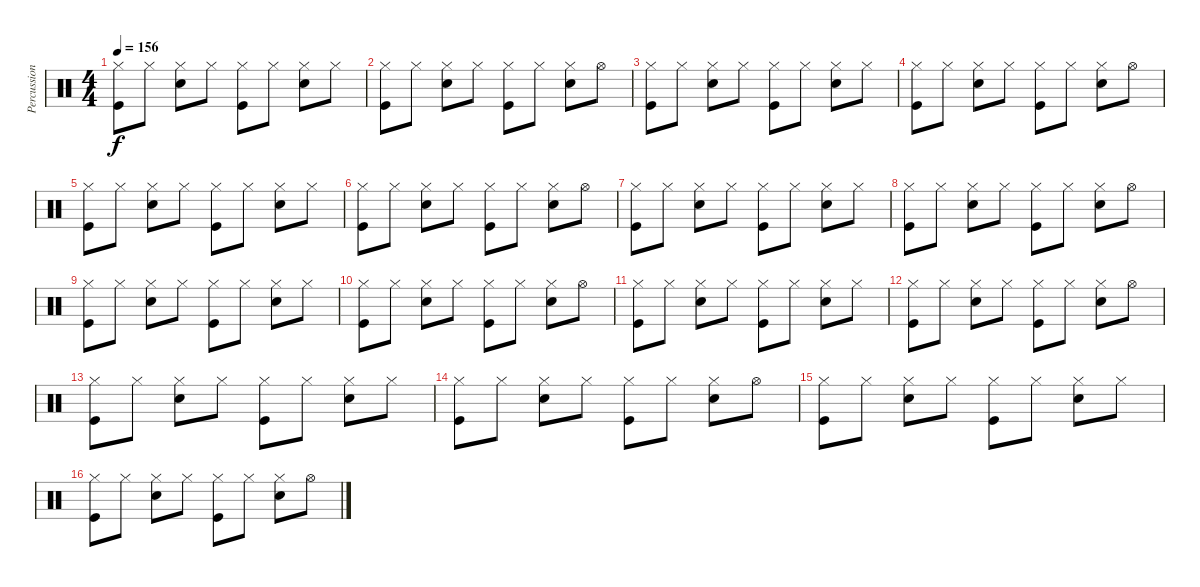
\track ("Percussion" "Percussion") {instrument percussion}
\staff {score}
\articulation defaults
\ts (4 4)
\tempo 156
\clef neutral
\ks c
("Kick (hit)" "Hi-Hat (closed)").8{dy f} "Hi-Hat (closed)".8 ("Electric Snare (hit)" "Hi-Hat (closed)").8 "Hi-Hat (closed)".8 ("Kick (hit)" "Hi-Hat (closed)").8 "Hi-Hat (closed)".8 ("Electric Snare (hit)" "Hi-Hat (closed)").8 "Hi-Hat (closed)".8 |
("Kick (hit)" "Hi-Hat (closed)").8 "Hi-Hat (closed)".8 ("Electric Snare (hit)" "Hi-Hat (closed)").8 "Hi-Hat (closed)".8 ("Kick (hit)" "Hi-Hat (closed)").8 "Hi-Hat (closed)".8 ("Electric Snare (hit)" "Hi-Hat (closed)").8 "Hi-Hat (open)".8 |
("Kick (hit)" "Hi-Hat (closed)").8 "Hi-Hat (closed)".8 ("Electric Snare (hit)" "Hi-Hat (closed)").8 "Hi-Hat (closed)".8 ("Kick (hit)" "Hi-Hat (closed)").8 "Hi-Hat (closed)".8 ("Electric Snare (hit)" "Hi-Hat (closed)").8 "Hi-Hat (closed)".8 |
("Kick (hit)" "Hi-Hat (closed)").8 "Hi-Hat (closed)".8 ("Electric Snare (hit)" "Hi-Hat (closed)").8 "Hi-Hat (closed)".8 ("Kick (hit)" "Hi-Hat (closed)").8 "Hi-Hat (closed)".8 ("Electric Snare (hit)" "Hi-Hat (closed)").8 "Hi-Hat (open)".8 |
("Kick (hit)" "Hi-Hat (closed)").8 "Hi-Hat (closed)".8 ("Electric Snare (hit)" "Hi-Hat (closed)").8 "Hi-Hat (closed)".8 ("Kick (hit)" "Hi-Hat (closed)").8 "Hi-Hat (closed)".8 ("Electric Snare (hit)" "Hi-Hat (closed)").8 "Hi-Hat (closed)".8 |
("Kick (hit)" "Hi-Hat (closed)").8 "Hi-Hat (closed)".8 ("Electric Snare (hit)" "Hi-Hat (closed)").8 "Hi-Hat (closed)".8 ("Kick (hit)" "Hi-Hat (closed)").8 "Hi-Hat (closed)".8 ("Electric Snare (hit)" "Hi-Hat (closed)").8 "Hi-Hat (open)".8 |
("Kick (hit)" "Hi-Hat (closed)").8 "Hi-Hat (closed)".8 ("Electric Snare (hit)" "Hi-Hat (closed)").8 "Hi-Hat (closed)".8 ("Kick (hit)" "Hi-Hat (closed)").8 "Hi-Hat (closed)".8 ("Electric Snare (hit)" "Hi-Hat (closed)").8 "Hi-Hat (closed)".8 |
("Kick (hit)" "Hi-Hat (closed)").8 "Hi-Hat (closed)".8 ("Electric Snare (hit)" "Hi-Hat (closed)").8 "Hi-Hat (closed)".8 ("Kick (hit)" "Hi-Hat (closed)").8 "Hi-Hat (closed)".8 ("Electric Snare (hit)" "Hi-Hat (closed)").8 "Hi-Hat (open)".8 |
("Kick (hit)" "Hi-Hat (closed)").8 "Hi-Hat (closed)".8 ("Electric Snare (hit)" "Hi-Hat (closed)").8 "Hi-Hat (closed)".8 ("Kick (hit)" "Hi-Hat (closed)").8 "Hi-Hat (closed)".8 ("Electric Snare (hit)" "Hi-Hat (closed)").8 "Hi-Hat (closed)".8 |
("Kick (hit)" "Hi-Hat (closed)").8 "Hi-Hat (closed)".8 ("Electric Snare (hit)" "Hi-Hat (closed)").8 "Hi-Hat (closed)".8 ("Kick (hit)" "Hi-Hat (closed)").8 "Hi-Hat (closed)".8 ("Electric Snare (hit)" "Hi-Hat (closed)").8 "Hi-Hat (open)".8 |
("Kick (hit)" "Hi-Hat (closed)").8 "Hi-Hat (closed)".8 ("Electric Snare (hit)" "Hi-Hat (closed)").8 "Hi-Hat (closed)".8 ("Kick (hit)" "Hi-Hat (closed)").8 "Hi-Hat (closed)".8 ("Electric Snare (hit)" "Hi-Hat (closed)").8 "Hi-Hat (closed)".8 |
("Kick (hit)" "Hi-Hat (closed)").8 "Hi-Hat (closed)".8 ("Electric Snare (hit)" "Hi-Hat (closed)").8 "Hi-Hat (closed)".8 ("Kick (hit)" "Hi-Hat (closed)").8 "Hi-Hat (closed)".8 ("Electric Snare (hit)" "Hi-Hat (closed)").8 "Hi-Hat (open)".8 |
("Kick (hit)" "Hi-Hat (closed)").8 "Hi-Hat (closed)".8 ("Electric Snare (hit)" "Hi-Hat (closed)").8 "Hi-Hat (closed)".8 ("Kick (hit)" "Hi-Hat (closed)").8 "Hi-Hat (closed)".8 ("Electric Snare (hit)" "Hi-Hat (closed)").8 "Hi-Hat (closed)".8 |
("Kick (hit)" "Hi-Hat (closed)").8 "Hi-Hat (closed)".8 ("Electric Snare (hit)" "Hi-Hat (closed)").8 "Hi-Hat (closed)".8 ("Kick (hit)" "Hi-Hat (closed)").8 "Hi-Hat (closed)".8 ("Electric Snare (hit)" "Hi-Hat (closed)").8 "Hi-Hat (open)".8 |
("Kick (hit)" "Hi-Hat (closed)").8 "Hi-Hat (closed)".8 ("Electric Snare (hit)" "Hi-Hat (closed)").8 "Hi-Hat (closed)".8 ("Kick (hit)" "Hi-Hat (closed)").8 "Hi-Hat (closed)".8 ("Electric Snare (hit)" "Hi-Hat (closed)").8 "Hi-Hat (closed)".8 |
("Kick (hit)" "Hi-Hat (closed)").8 "Hi-Hat (closed)".8 ("Electric Snare (hit)" "Hi-Hat (closed)").8 "Hi-Hat (closed)".8 ("Kick (hit)" "Hi-Hat (closed)").8 "Hi-Hat (closed)".8 ("Electric Snare (hit)" "Hi-Hat (closed)").8 "Hi-Hat (open)".8
